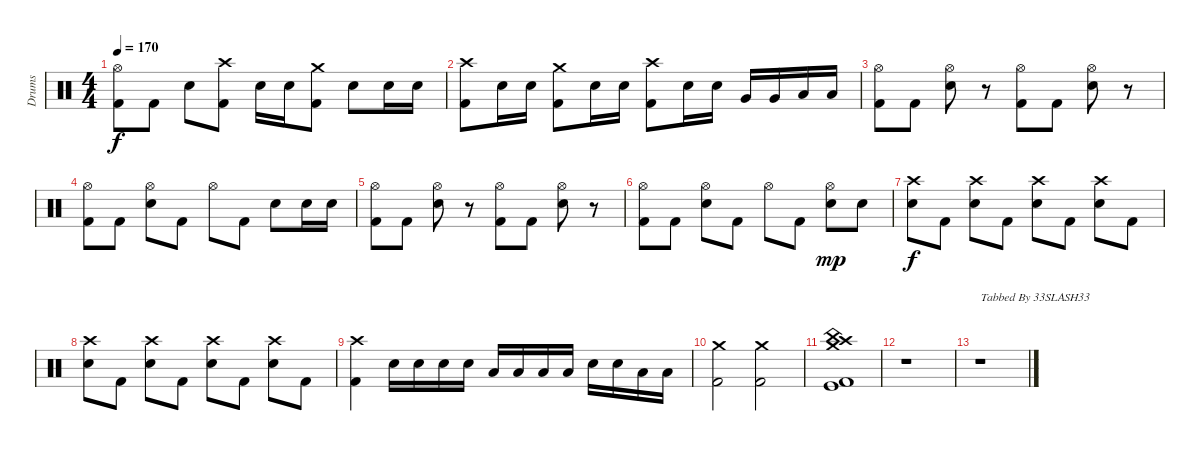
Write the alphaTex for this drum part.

\track ("Drums" "Drums") {instrument percussion}
\staff {score}
\articulation defaults
\ts (4 4)
\tempo 170
\clef neutral
\ks c
("Hi-Hat (open)" "Kick (hit) 2").8{dy f} "Kick (hit) 2".8 "Snare (hit) 2".8 ("Crash high (hit)" "Kick (hit) 2").8 "Snare (hit) 2".16 "Snare (hit) 2".16 ("Crash medium (hit)" "Kick (hit) 2").8 "Snare (hit) 2".8 "Snare (hit) 2".16 "Snare (hit) 2".16 |
("Crash high (hit)" "Kick (hit) 2").8 "Snare (hit) 2".16 "Snare (hit) 2".16 ("Crash medium (hit)" "Kick (hit) 2").8 "Snare (hit) 2".16 "Snare (hit) 2".16 ("Crash high (hit)" "Kick (hit) 2").8 "Snare (hit) 2".16 "Snare (hit) 2".16 "Very Low Tom (hit)".16 "Very Low Tom (hit)".16 "Low Floor Tom (hit)".16 "Low Floor Tom (hit)".16 |
("Hi-Hat (open)" "Kick (hit) 2").8 "Kick (hit) 2".8 ("Hi-Hat (open)" "Snare (hit) 2").8 r.8 ("Hi-Hat (open)" "Kick (hit) 2").8 "Kick (hit) 2".8 ("Hi-Hat (open)" "Snare (hit) 2").8 r.8 |
("Hi-Hat (open)" "Kick (hit) 2").8 "Kick (hit) 2".8 ("Hi-Hat (open)" "Snare (hit) 2").8 "Kick (hit) 2".8 "Hi-Hat (open)".8 "Kick (hit) 2".8 "Snare (hit) 2".8 "Snare (hit) 2".16 "Snare (hit) 2".16 |
("Hi-Hat (open)" "Kick (hit) 2").8 "Kick (hit) 2".8 ("Hi-Hat (open)" "Snare (hit) 2").8 r.8 ("Hi-Hat (open)" "Kick (hit) 2").8 "Kick (hit) 2".8 ("Hi-Hat (open)" "Snare (hit) 2").8 r.8 |
("Hi-Hat (open)" "Kick (hit) 2").8 "Kick (hit) 2".8 ("Hi-Hat (open)" "Snare (hit) 2").8 "Kick (hit) 2".8 "Hi-Hat (open)".8 "Kick (hit) 2".8 ("Hi-Hat (open)" "Snare (hit) 2").8{dy mp} "Snare (hit) 2".8 |
("Crash high (hit)" "Snare (hit) 2").8{dy f} "Kick (hit) 2".8 ("Crash high (hit)" "Snare (hit) 2").8 "Kick (hit) 2".8 ("Crash high (hit)" "Snare (hit) 2").8 "Kick (hit) 2".8 ("Crash high (hit)" "Snare (hit) 2").8 "Kick (hit) 2".8 |
("Crash high (hit)" "Snare (hit) 2").8 "Kick (hit) 2".8 ("Crash high (hit)" "Snare (hit) 2").8 "Kick (hit) 2".8 ("Crash high (hit)" "Snare (hit) 2").8 "Kick (hit) 2".8 ("Crash high (hit)" "Snare (hit) 2").8 "Kick (hit) 2".8 |
("Crash high (hit)" "Kick (hit) 2").4 "Snare (hit) 2".16 "Snare (hit) 2".16 "Snare (hit) 2".16 "Snare (hit) 2".16 "Low Floor Tom (hit)".16 "Low Floor Tom (hit)".16 "Low Floor Tom (hit)".16 "Low Floor Tom (hit)".16 "Snare (hit) 2".16 "Snare (hit) 2".16 "Low Floor Tom (hit)".16 "Low Floor Tom (hit)".16 |
("Crash medium (hit)" "Kick (hit) 2").2 ("Crash medium (hit)" "Kick (hit) 2").2 |
("Crash high (hit)" "Crash medium (hit)" "China (hit)" "Kick (hit)" "Kick (hit) 2").1 |
r.1 |
r.1{txt "Tabbed By 33SLASH33"}
